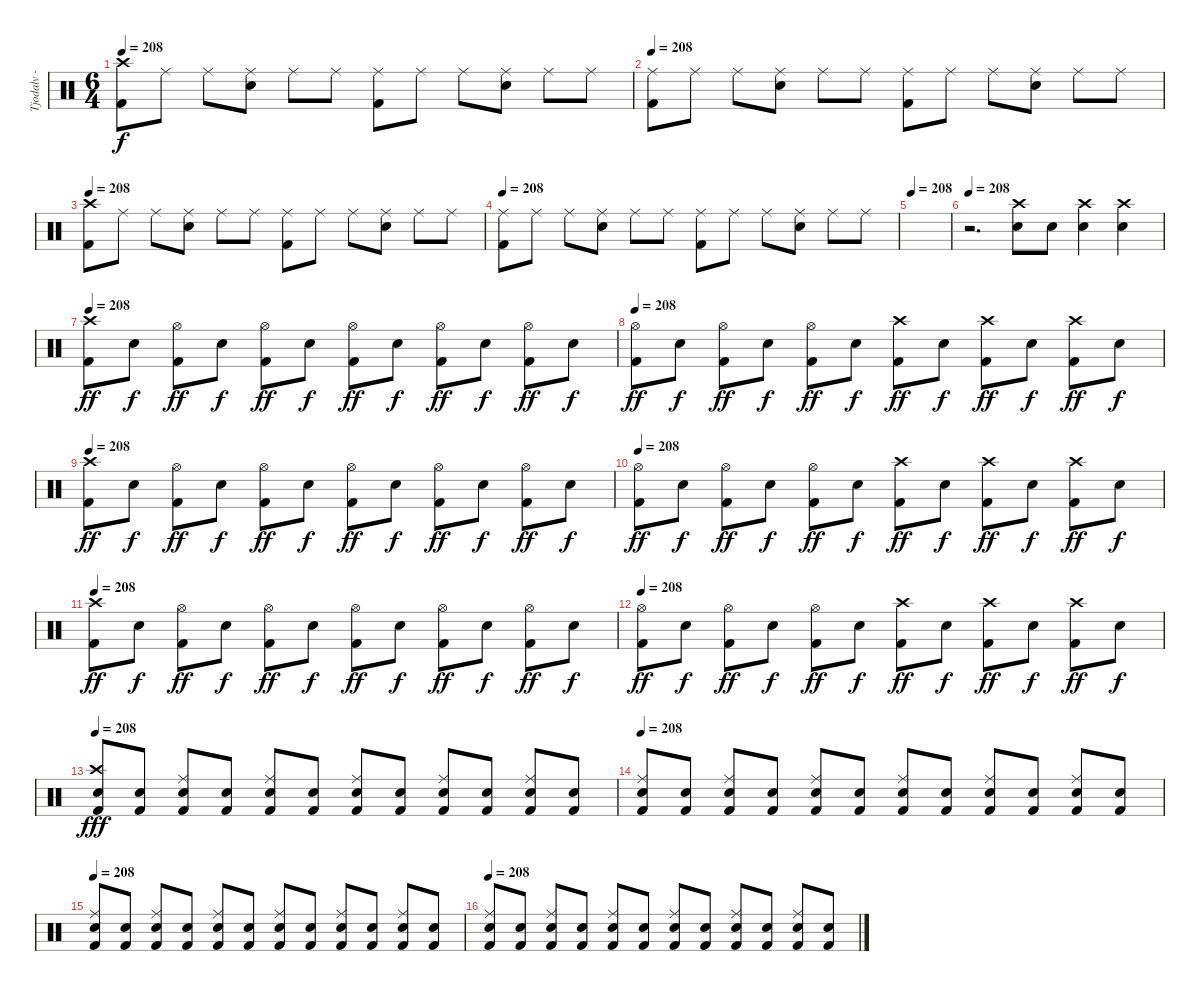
\track ("Tjodalv - Drums" "Tjodalv - ") {instrument percussion}
\staff {score}
\articulation defaults
\ts (6 4)
\tempo 208
\clef neutral
\ks c
("Kick (hit) 2" "Crash high (hit)").8{dy f} "Ride (middle)".8 "Ride (middle)".8 ("Snare (hit) 2" "Ride (middle)").8 "Ride (middle)".8 "Ride (middle)".8 ("Kick (hit) 2" "Ride (middle)").8 "Ride (middle)".8 "Ride (middle)".8 ("Snare (hit) 2" "Ride (middle)").8 "Ride (middle)".8 "Ride (middle)".8 |
\tempo 208
("Kick (hit) 2" "Ride (middle)").8 "Ride (middle)".8 "Ride (middle)".8 ("Snare (hit) 2" "Ride (middle)").8 "Ride (middle)".8 "Ride (middle)".8 ("Kick (hit) 2" "Ride (middle)").8 "Ride (middle)".8 "Ride (middle)".8 ("Snare (hit) 2" "Ride (middle)").8 "Ride (middle)".8 "Ride (middle)".8 |
\tempo 208
("Kick (hit) 2" "Crash high (hit)").8 "Ride (middle)".8 "Ride (middle)".8 ("Snare (hit) 2" "Ride (middle)").8 "Ride (middle)".8 "Ride (middle)".8 ("Kick (hit) 2" "Ride (middle)").8 "Ride (middle)".8 "Ride (middle)".8 ("Snare (hit) 2" "Ride (middle)").8 "Ride (middle)".8 "Ride (middle)".8 |
\tempo 208
("Kick (hit) 2" "Ride (middle)").8 "Ride (middle)".8 "Ride (middle)".8 ("Snare (hit) 2" "Ride (middle)").8 "Ride (middle)".8 "Ride (middle)".8 ("Kick (hit) 2" "Ride (middle)").8 "Ride (middle)".8 "Ride (middle)".8 ("Snare (hit) 2" "Ride (middle)").8 "Ride (middle)".8 "Ride (middle)".8 |
\tempo 208
|
\tempo 208
r.2{d} ("Snare (hit) 2" "Crash high (hit)").8 "Snare (hit) 2".8 ("Snare (hit) 2" "Crash high (hit)").4 ("Snare (hit) 2" "Crash high (hit)").4 |
\tempo 208
("Kick (hit) 2" "Crash high (hit)").8{dy ff} "Snare (hit) 2".8{dy f} ("Kick (hit) 2" "Hi-Hat (open)").8{dy ff} "Snare (hit) 2".8{dy f} ("Kick (hit) 2" "Hi-Hat (open)").8{dy ff} "Snare (hit) 2".8{dy f} ("Kick (hit) 2" "Hi-Hat (open)").8{dy ff} "Snare (hit) 2".8{dy f} ("Kick (hit) 2" "Hi-Hat (open)").8{dy ff} "Snare (hit) 2".8{dy f} ("Kick (hit) 2" "Hi-Hat (open)").8{dy ff} "Snare (hit) 2".8{dy f} |
\tempo 208
("Kick (hit) 2" "Hi-Hat (open)").8{dy ff} "Snare (hit) 2".8{dy f} ("Kick (hit) 2" "Hi-Hat (open)").8{dy ff} "Snare (hit) 2".8{dy f} ("Kick (hit) 2" "Hi-Hat (open)").8{dy ff} "Snare (hit) 2".8{dy f} ("Kick (hit) 2" "Crash high (hit)").8{dy ff} "Snare (hit) 2".8{dy f} ("Kick (hit) 2" "Crash high (hit)").8{dy ff} "Snare (hit) 2".8{dy f} ("Kick (hit) 2" "Crash high (hit)").8{dy ff} "Snare (hit) 2".8{dy f} |
\tempo 208
("Kick (hit) 2" "Crash high (hit)").8{dy ff} "Snare (hit) 2".8{dy f} ("Kick (hit) 2" "Hi-Hat (open)").8{dy ff} "Snare (hit) 2".8{dy f} ("Kick (hit) 2" "Hi-Hat (open)").8{dy ff} "Snare (hit) 2".8{dy f} ("Kick (hit) 2" "Hi-Hat (open)").8{dy ff} "Snare (hit) 2".8{dy f} ("Kick (hit) 2" "Hi-Hat (open)").8{dy ff} "Snare (hit) 2".8{dy f} ("Kick (hit) 2" "Hi-Hat (open)").8{dy ff} "Snare (hit) 2".8{dy f} |
\tempo 208
("Kick (hit) 2" "Hi-Hat (open)").8{dy ff} "Snare (hit) 2".8{dy f} ("Kick (hit) 2" "Hi-Hat (open)").8{dy ff} "Snare (hit) 2".8{dy f} ("Kick (hit) 2" "Hi-Hat (open)").8{dy ff} "Snare (hit) 2".8{dy f} ("Kick (hit) 2" "Crash high (hit)").8{dy ff} "Snare (hit) 2".8{dy f} ("Kick (hit) 2" "Crash high (hit)").8{dy ff} "Snare (hit) 2".8{dy f} ("Kick (hit) 2" "Crash high (hit)").8{dy ff} "Snare (hit) 2".8{dy f} |
\tempo 208
("Kick (hit) 2" "Crash high (hit)").8{dy ff} "Snare (hit) 2".8{dy f} ("Kick (hit) 2" "Hi-Hat (open)").8{dy ff} "Snare (hit) 2".8{dy f} ("Kick (hit) 2" "Hi-Hat (open)").8{dy ff} "Snare (hit) 2".8{dy f} ("Kick (hit) 2" "Hi-Hat (open)").8{dy ff} "Snare (hit) 2".8{dy f} ("Kick (hit) 2" "Hi-Hat (open)").8{dy ff} "Snare (hit) 2".8{dy f} ("Kick (hit) 2" "Hi-Hat (open)").8{dy ff} "Snare (hit) 2".8{dy f} |
\tempo 208
("Kick (hit) 2" "Hi-Hat (open)").8{dy ff} "Snare (hit) 2".8{dy f} ("Kick (hit) 2" "Hi-Hat (open)").8{dy ff} "Snare (hit) 2".8{dy f} ("Kick (hit) 2" "Hi-Hat (open)").8{dy ff} "Snare (hit) 2".8{dy f} ("Kick (hit) 2" "Crash high (hit)").8{dy ff} "Snare (hit) 2".8{dy f} ("Kick (hit) 2" "Crash high (hit)").8{dy ff} "Snare (hit) 2".8{dy f} ("Kick (hit) 2" "Crash high (hit)").8{dy ff} "Snare (hit) 2".8{dy f} |
\tempo 208
("Kick (hit) 2" "Snare (hit) 2" "Crash high (hit)").8{dy fff} ("Kick (hit) 2" "Snare (hit) 2").8 ("Kick (hit) 2" "Snare (hit) 2" "Ride (middle)").8 ("Kick (hit) 2" "Snare (hit) 2").8 ("Kick (hit) 2" "Snare (hit) 2" "Ride (middle)").8 ("Kick (hit) 2" "Snare (hit) 2").8 ("Kick (hit) 2" "Snare (hit) 2" "Ride (middle)").8 ("Kick (hit) 2" "Snare (hit) 2").8 ("Kick (hit) 2" "Snare (hit) 2" "Ride (middle)").8 ("Kick (hit) 2" "Snare (hit) 2").8 ("Kick (hit) 2" "Snare (hit) 2" "Ride (middle)").8 ("Kick (hit) 2" "Snare (hit) 2").8 |
\tempo 208
("Kick (hit) 2" "Snare (hit) 2" "Ride (middle)").8 ("Kick (hit) 2" "Snare (hit) 2").8 ("Kick (hit) 2" "Snare (hit) 2" "Ride (middle)").8 ("Kick (hit) 2" "Snare (hit) 2").8 ("Kick (hit) 2" "Snare (hit) 2" "Ride (middle)").8 ("Kick (hit) 2" "Snare (hit) 2").8 ("Kick (hit) 2" "Snare (hit) 2" "Ride (middle)").8 ("Kick (hit) 2" "Snare (hit) 2").8 ("Kick (hit) 2" "Snare (hit) 2" "Ride (middle)").8 ("Kick (hit) 2" "Snare (hit) 2").8 ("Kick (hit) 2" "Snare (hit) 2" "Ride (middle)").8 ("Kick (hit) 2" "Snare (hit) 2").8 |
\tempo 208
("Kick (hit) 2" "Snare (hit) 2" "Ride (middle)").8 ("Kick (hit) 2" "Snare (hit) 2").8 ("Kick (hit) 2" "Snare (hit) 2" "Ride (middle)").8 ("Kick (hit) 2" "Snare (hit) 2").8 ("Kick (hit) 2" "Snare (hit) 2" "Ride (middle)").8 ("Kick (hit) 2" "Snare (hit) 2").8 ("Kick (hit) 2" "Snare (hit) 2" "Ride (middle)").8 ("Kick (hit) 2" "Snare (hit) 2").8 ("Kick (hit) 2" "Snare (hit) 2" "Ride (middle)").8 ("Kick (hit) 2" "Snare (hit) 2").8 ("Kick (hit) 2" "Snare (hit) 2" "Ride (middle)").8 ("Kick (hit) 2" "Snare (hit) 2").8 |
\tempo 208
("Kick (hit) 2" "Snare (hit) 2" "Ride (middle)").8 ("Kick (hit) 2" "Snare (hit) 2").8 ("Kick (hit) 2" "Snare (hit) 2" "Ride (middle)").8 ("Kick (hit) 2" "Snare (hit) 2").8 ("Kick (hit) 2" "Snare (hit) 2" "Ride (middle)").8 ("Kick (hit) 2" "Snare (hit) 2").8 ("Kick (hit) 2" "Snare (hit) 2" "Ride (middle)").8 ("Kick (hit) 2" "Snare (hit) 2").8 ("Kick (hit) 2" "Snare (hit) 2" "Ride (middle)").8 ("Kick (hit) 2" "Snare (hit) 2").8 ("Kick (hit) 2" "Snare (hit) 2" "Ride (middle)").8 ("Kick (hit) 2" "Snare (hit) 2").8
